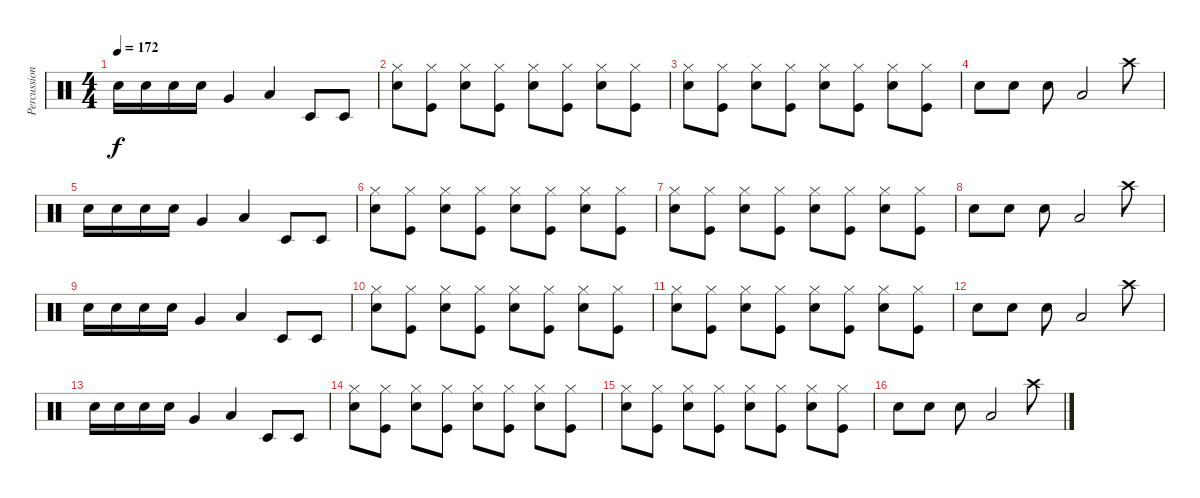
\track ("Percussion" "Percussion") {instrument percussion}
\staff {score}
\articulation defaults
\ts (4 4)
\tempo 172
\clef neutral
\ks c "Snare (hit) 2".16{dy f} "Snare (hit) 2".16 "Snare (hit) 2".16 "Snare (hit) 2".16 "Very Low Tom (hit)".4 "Low Tom (hit)".4 "Timbale low (hit)".8 "Timbale low (hit)".8
|
("Hi-Hat (closed)" "Snare (hit) 2").8 ("Hi-Hat (closed)" "Kick (hit)").8 ("Hi-Hat (closed)" "Snare (hit) 2").8 ("Hi-Hat (closed)" "Kick (hit)").8 ("Hi-Hat (closed)" "Snare (hit) 2").8 ("Hi-Hat (closed)" "Kick (hit)").8 ("Hi-Hat (closed)" "Snare (hit) 2").8 ("Hi-Hat (closed)" "Kick (hit)").8 |
("Hi-Hat (closed)" "Snare (hit) 2").8 ("Hi-Hat (closed)" "Kick (hit)").8 ("Hi-Hat (closed)" "Snare (hit) 2").8 ("Hi-Hat (closed)" "Kick (hit)").8 ("Hi-Hat (closed)" "Snare (hit) 2").8 ("Hi-Hat (closed)" "Kick (hit)").8 ("Hi-Hat (closed)" "Snare (hit) 2").8 ("Hi-Hat (closed)" "Kick (hit)").8 |
"Snare (hit) 2".8 "Snare (hit) 2".8 "Snare (hit) 2".8 "Low Tom (hit)".2 "Crash high (hit)".8 |
"Snare (hit) 2".16 "Snare (hit) 2".16 "Snare (hit) 2".16 "Snare (hit) 2".16 "Very Low Tom (hit)".4 "Low Tom (hit)".4 "Timbale low (hit)".8 "Timbale low (hit)".8 |
("Hi-Hat (closed)" "Snare (hit) 2").8 ("Hi-Hat (closed)" "Kick (hit)").8 ("Hi-Hat (closed)" "Snare (hit) 2").8 ("Hi-Hat (closed)" "Kick (hit)").8 ("Hi-Hat (closed)" "Snare (hit) 2").8 ("Hi-Hat (closed)" "Kick (hit)").8 ("Hi-Hat (closed)" "Snare (hit) 2").8 ("Hi-Hat (closed)" "Kick (hit)").8 |
("Hi-Hat (closed)" "Snare (hit) 2").8 ("Hi-Hat (closed)" "Kick (hit)").8 ("Hi-Hat (closed)" "Snare (hit) 2").8 ("Hi-Hat (closed)" "Kick (hit)").8 ("Hi-Hat (closed)" "Snare (hit) 2").8 ("Hi-Hat (closed)" "Kick (hit)").8 ("Hi-Hat (closed)" "Snare (hit) 2").8 ("Hi-Hat (closed)" "Kick (hit)").8 |
"Snare (hit) 2".8 "Snare (hit) 2".8 "Snare (hit) 2".8 "Low Tom (hit)".2 "Crash high (hit)".8 |
"Snare (hit) 2".16 "Snare (hit) 2".16 "Snare (hit) 2".16 "Snare (hit) 2".16 "Very Low Tom (hit)".4 "Low Tom (hit)".4 "Timbale low (hit)".8 "Timbale low (hit)".8 |
("Hi-Hat (closed)" "Snare (hit) 2").8 ("Hi-Hat (closed)" "Kick (hit)").8 ("Hi-Hat (closed)" "Snare (hit) 2").8 ("Hi-Hat (closed)" "Kick (hit)").8 ("Hi-Hat (closed)" "Snare (hit) 2").8 ("Hi-Hat (closed)" "Kick (hit)").8 ("Hi-Hat (closed)" "Snare (hit) 2").8 ("Hi-Hat (closed)" "Kick (hit)").8 |
("Hi-Hat (closed)" "Snare (hit) 2").8 ("Hi-Hat (closed)" "Kick (hit)").8 ("Hi-Hat (closed)" "Snare (hit) 2").8 ("Hi-Hat (closed)" "Kick (hit)").8 ("Hi-Hat (closed)" "Snare (hit) 2").8 ("Hi-Hat (closed)" "Kick (hit)").8 ("Hi-Hat (closed)" "Snare (hit) 2").8 ("Hi-Hat (closed)" "Kick (hit)").8 |
"Snare (hit) 2".8 "Snare (hit) 2".8 "Snare (hit) 2".8 "Low Tom (hit)".2 "Crash high (hit)".8 |
"Snare (hit) 2".16 "Snare (hit) 2".16 "Snare (hit) 2".16 "Snare (hit) 2".16 "Very Low Tom (hit)".4 "Low Tom (hit)".4 "Timbale low (hit)".8 "Timbale low (hit)".8 |
("Hi-Hat (closed)" "Snare (hit) 2").8 ("Hi-Hat (closed)" "Kick (hit)").8 ("Hi-Hat (closed)" "Snare (hit) 2").8 ("Hi-Hat (closed)" "Kick (hit)").8 ("Hi-Hat (closed)" "Snare (hit) 2").8 ("Hi-Hat (closed)" "Kick (hit)").8 ("Hi-Hat (closed)" "Snare (hit) 2").8 ("Hi-Hat (closed)" "Kick (hit)").8 |
("Hi-Hat (closed)" "Snare (hit) 2").8 ("Hi-Hat (closed)" "Kick (hit)").8 ("Hi-Hat (closed)" "Snare (hit) 2").8 ("Hi-Hat (closed)" "Kick (hit)").8 ("Hi-Hat (closed)" "Snare (hit) 2").8 ("Hi-Hat (closed)" "Kick (hit)").8 ("Hi-Hat (closed)" "Snare (hit) 2").8 ("Hi-Hat (closed)" "Kick (hit)").8 |
"Snare (hit) 2".8 "Snare (hit) 2".8 "Snare (hit) 2".8 "Low Tom (hit)".2 "Crash high (hit)".8
